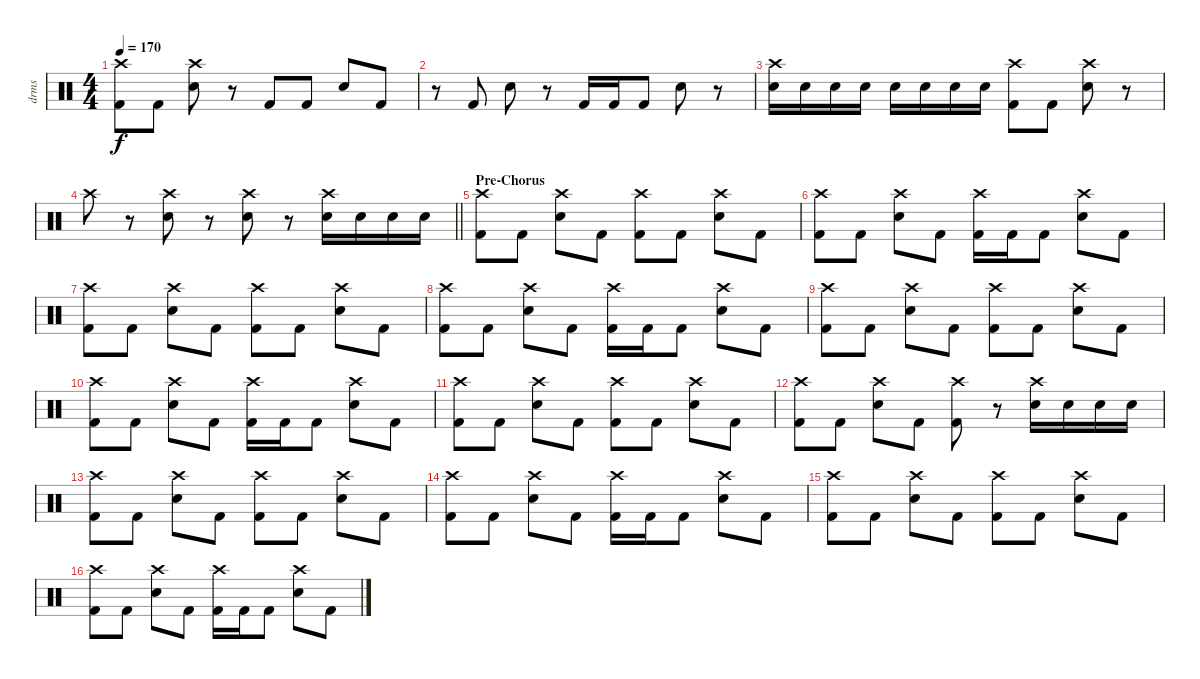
\track ("drms" "drms") {instrument percussion}
\staff {score}
\articulation defaults
\ts (4 4)
\tempo 170
\clef neutral
\ks c
("Crash high (hit)" "Kick (hit) 2").8{dy f} "Kick (hit) 2".8 ("Crash high (hit)" "Snare (hit) 2").8 r.8 "Kick (hit) 2".8 "Kick (hit) 2".8 "Snare (hit) 2".8 "Kick (hit) 2".8 |
r.8 "Kick (hit) 2".8 "Snare (hit) 2".8 r.8 "Kick (hit) 2".16 "Kick (hit) 2".16 "Kick (hit) 2".8 "Snare (hit) 2".8 r.8 |
("Crash high (hit)" "Snare (hit) 2").16 "Snare (hit) 2".16 "Snare (hit) 2".16 "Snare (hit) 2".16 "Snare (hit) 2".16 "Snare (hit) 2".16 "Snare (hit) 2".16 "Snare (hit) 2".16 ("Crash high (hit)" "Kick (hit) 2").8 "Kick (hit) 2".8 ("Crash high (hit)" "Snare (hit) 2").8 r.8 |
\barLineRight lightlight "Crash high (hit)".8
r.8 ("Crash high (hit)" "Electric Snare (hit)").8 r.8 ("Crash high (hit)" "Electric Snare (hit)").8 r.8 ("Crash high (hit)" "Electric Snare (hit)").16 "Electric Snare (hit)".16 "Electric Snare (hit)".16 "Electric Snare (hit)".16 |
\section ("" "Pre-Chorus")
("Crash high (hit)" "Kick (hit) 2").8 "Kick (hit) 2".8 ("Crash high (hit)" "Snare (hit) 2").8 "Kick (hit) 2".8 ("Crash high (hit)" "Kick (hit) 2").8 "Kick (hit) 2".8 ("Crash high (hit)" "Snare (hit) 2").8 "Kick (hit) 2".8 |
("Crash high (hit)" "Kick (hit) 2").8 "Kick (hit) 2".8 ("Crash high (hit)" "Snare (hit) 2").8 "Kick (hit) 2".8 ("Crash high (hit)" "Kick (hit) 2").16 "Kick (hit) 2".16 "Kick (hit) 2".8 ("Crash high (hit)" "Snare (hit) 2").8 "Kick (hit) 2".8 |
("Crash high (hit)" "Kick (hit) 2").8 "Kick (hit) 2".8 ("Crash high (hit)" "Snare (hit) 2").8 "Kick (hit) 2".8 ("Crash high (hit)" "Kick (hit) 2").8 "Kick (hit) 2".8 ("Crash high (hit)" "Snare (hit) 2").8 "Kick (hit) 2".8 |
("Crash high (hit)" "Kick (hit) 2").8 "Kick (hit) 2".8 ("Crash high (hit)" "Snare (hit) 2").8 "Kick (hit) 2".8 ("Crash high (hit)" "Kick (hit) 2").16 "Kick (hit) 2".16 "Kick (hit) 2".8 ("Crash high (hit)" "Snare (hit) 2").8 "Kick (hit) 2".8 |
("Crash high (hit)" "Kick (hit) 2").8 "Kick (hit) 2".8 ("Crash high (hit)" "Snare (hit) 2").8 "Kick (hit) 2".8 ("Crash high (hit)" "Kick (hit) 2").8 "Kick (hit) 2".8 ("Crash high (hit)" "Snare (hit) 2").8 "Kick (hit) 2".8 |
("Crash high (hit)" "Kick (hit) 2").8 "Kick (hit) 2".8 ("Crash high (hit)" "Snare (hit) 2").8 "Kick (hit) 2".8 ("Crash high (hit)" "Kick (hit) 2").16 "Kick (hit) 2".16 "Kick (hit) 2".8 ("Crash high (hit)" "Snare (hit) 2").8 "Kick (hit) 2".8 |
("Crash high (hit)" "Kick (hit) 2").8 "Kick (hit) 2".8 ("Crash high (hit)" "Snare (hit) 2").8 "Kick (hit) 2".8 ("Crash high (hit)" "Kick (hit) 2").8 "Kick (hit) 2".8 ("Crash high (hit)" "Snare (hit) 2").8 "Kick (hit) 2".8 |
("Crash high (hit)" "Kick (hit) 2").8 "Kick (hit) 2".8 ("Crash high (hit)" "Snare (hit) 2").8 "Kick (hit) 2".8 ("Crash high (hit)" "Kick (hit) 2").8 r.8 ("Crash high (hit)" "Electric Snare (hit)").16 "Electric Snare (hit)".16 "Electric Snare (hit)".16 "Electric Snare (hit)".16 |
("Crash high (hit)" "Kick (hit) 2").8 "Kick (hit) 2".8 ("Crash high (hit)" "Snare (hit) 2").8 "Kick (hit) 2".8 ("Crash high (hit)" "Kick (hit) 2").8 "Kick (hit) 2".8 ("Crash high (hit)" "Snare (hit) 2").8 "Kick (hit) 2".8 |
("Crash high (hit)" "Kick (hit) 2").8 "Kick (hit) 2".8 ("Crash high (hit)" "Snare (hit) 2").8 "Kick (hit) 2".8 ("Crash high (hit)" "Kick (hit) 2").16 "Kick (hit) 2".16 "Kick (hit) 2".8 ("Crash high (hit)" "Snare (hit) 2").8 "Kick (hit) 2".8 |
("Crash high (hit)" "Kick (hit) 2").8 "Kick (hit) 2".8 ("Crash high (hit)" "Snare (hit) 2").8 "Kick (hit) 2".8 ("Crash high (hit)" "Kick (hit) 2").8 "Kick (hit) 2".8 ("Crash high (hit)" "Snare (hit) 2").8 "Kick (hit) 2".8 |
("Crash high (hit)" "Kick (hit) 2").8 "Kick (hit) 2".8 ("Crash high (hit)" "Snare (hit) 2").8 "Kick (hit) 2".8 ("Crash high (hit)" "Kick (hit) 2").16 "Kick (hit) 2".16 "Kick (hit) 2".8 ("Crash high (hit)" "Snare (hit) 2").8 "Kick (hit) 2".8
